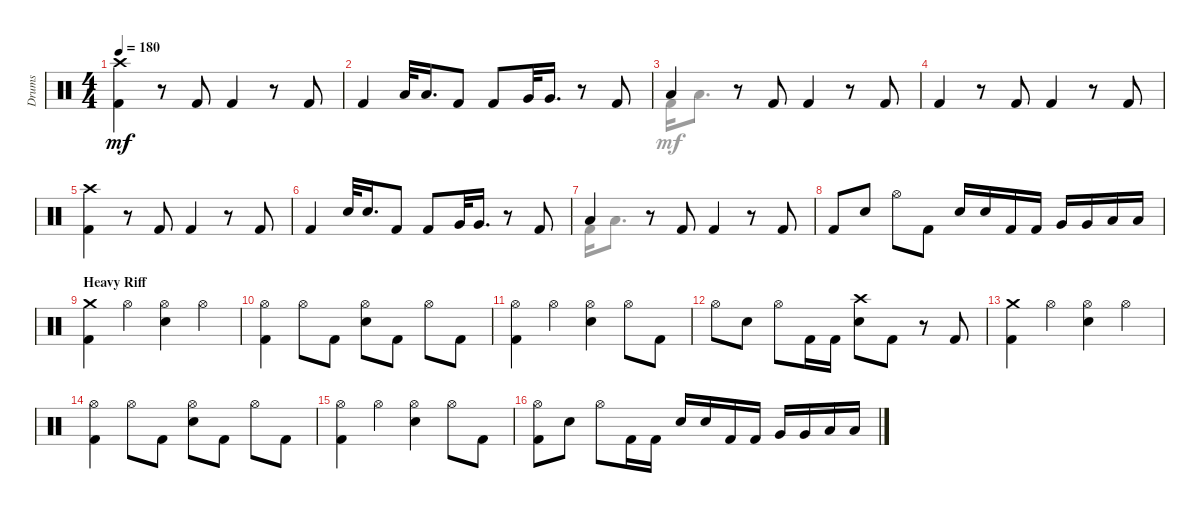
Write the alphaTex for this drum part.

\track ("Drums" "Drums") {instrument percussion}
\staff {score}
\articulation defaults
\voice
\ts (4 4)
\tempo 180
\clef neutral
\ks aminor
("Kick (hit) 2" "Crash high (hit)").4{dy mf} r.8 "Kick (hit) 2".8 "Kick (hit) 2".4 r.8 "Kick (hit) 2".8 |
"Kick (hit) 2".4 "Low Tom (hit)".32 "Low Tom (hit)".16{d} "Kick (hit) 2".8 "Kick (hit) 2".8 "Very Low Tom (hit)".32 "Very Low Tom (hit)".16{d} r.8 "Kick (hit) 2".8 |
"Low Floor Tom (hit)".4 r.8 "Kick (hit) 2".8 "Kick (hit) 2".4 r.8 "Kick (hit) 2".8 |
"Kick (hit) 2".4 r.8 "Kick (hit) 2".8 "Kick (hit) 2".4 r.8 "Kick (hit) 2".8 |
("Kick (hit) 2" "Crash high (hit)").4 r.8 "Kick (hit) 2".8 "Kick (hit) 2".4 r.8 "Kick (hit) 2".8 |
"Kick (hit) 2".4 "Snare (hit) 2".32 "Snare (hit) 2".16{d} "Kick (hit) 2".8 "Kick (hit) 2".8 "Very Low Tom (hit)".32 "Very Low Tom (hit)".16{d} r.8 "Kick (hit) 2".8 |
"Low Floor Tom (hit)".4 r.8 "Kick (hit) 2".8 "Kick (hit) 2".4 r.8 "Kick (hit) 2".8 |
"Kick (hit) 2".8 "Snare (hit) 2".8 "Hi-Hat (open)".8 "Kick (hit) 2".8 "Snare (hit) 2".16 "Snare (hit) 2".16 "Kick (hit) 2".16 "Kick (hit) 2".16 "Very Low Tom (hit)".16 "Very Low Tom (hit)".16 "Low Floor Tom (hit)".16 "Low Floor Tom (hit)".16 |
\section ("" "Heavy Riff")
("Kick (hit) 2" "Crash medium (hit)").4 "Hi-Hat (open)".4 ("Hi-Hat (open)" "Snare (hit) 2").4 "Hi-Hat (open)".4 |
("Kick (hit) 2" "Hi-Hat (open)").4 "Hi-Hat (open)".8 "Kick (hit) 2".8 ("Hi-Hat (open)" "Snare (hit) 2").8 "Kick (hit) 2".8 "Hi-Hat (open)".8 "Kick (hit) 2".8 |
("Kick (hit) 2" "Hi-Hat (open)").4 "Hi-Hat (open)".4 ("Snare (hit) 2" "Hi-Hat (open)").4 "Hi-Hat (open)".8 "Kick (hit) 2".8 |
"Hi-Hat (open)".8 "Snare (hit) 2".8 "Hi-Hat (open)".8 "Kick (hit) 2".16 "Kick (hit) 2".16 ("Crash high (hit)" "Snare (hit) 2").8 "Kick (hit) 2".8 r.8 "Kick (hit) 2".8 |
("Crash medium (hit)" "Kick (hit) 2").4 "Hi-Hat (open)".4 ("Snare (hit) 2" "Hi-Hat (open)").4 "Hi-Hat (open)".4 |
("Kick (hit) 2" "Hi-Hat (open)").4 "Hi-Hat (open)".8 "Kick (hit) 2".8 ("Hi-Hat (open)" "Snare (hit) 2").8 "Kick (hit) 2".8 "Hi-Hat (open)".8 "Kick (hit) 2".8 |
("Kick (hit) 2" "Hi-Hat (open)").4 "Hi-Hat (open)".4 ("Snare (hit) 2" "Hi-Hat (open)").4 "Hi-Hat (open)".8 "Kick (hit) 2".8 |
("Kick (hit) 2" "Hi-Hat (open)").8 "Snare (hit) 2".8 "Hi-Hat (open)".8 "Kick (hit) 2".16 "Kick (hit) 2".16 "Snare (hit) 2".16 "Snare (hit) 2".16 "Kick (hit) 2".16 "Kick (hit) 2".16 "Very Low Tom (hit)".16 "Very Low Tom (hit)".16 "Low Floor Tom (hit)".16 "Low Floor Tom (hit)".16
\voice
\clef neutral
\ottava regular
\simile none
\ks aminor
|
|
"Kick (hit) 2".16 "Low Floor Tom (hit)".8{d} |
|
|
|
"Kick (hit) 2".16 "Low Floor Tom (hit)".8{d} |
|
|
|
|
|
|
|
|
